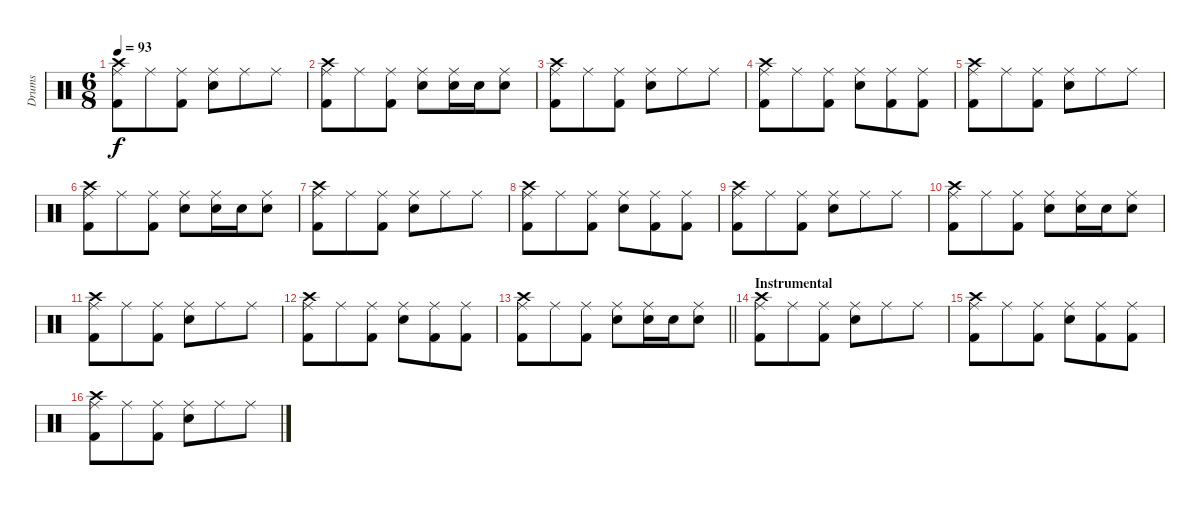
\track ("Drums" "Drums") {instrument percussion}
\staff {score}
\articulation defaults
\ts (6 8)
\tempo 93
\clef neutral
\ks c
("Crash high (hit)" "Ride (middle)" "Kick (hit) 2").8{dy f} "Ride (middle)".8 ("Ride (middle)" "Kick (hit) 2").8 ("Ride (middle)" "Snare (hit) 2").8 "Ride (middle)".8 "Ride (middle)".8 |
("Crash high (hit)" "Ride (middle)" "Kick (hit) 2").8 "Ride (middle)".8 ("Ride (middle)" "Kick (hit) 2").8 ("Ride (middle)" "Snare (hit) 2").8 ("Ride (middle)" "Snare (hit) 2").16 "Snare (hit) 2".16 ("Ride (middle)" "Snare (hit) 2").8 |
("Crash high (hit)" "Ride (middle)" "Kick (hit) 2").8 "Ride (middle)".8 ("Ride (middle)" "Kick (hit) 2").8 ("Ride (middle)" "Snare (hit) 2").8 "Ride (middle)".8 "Ride (middle)".8 |
("Crash high (hit)" "Ride (middle)" "Kick (hit) 2").8 "Ride (middle)".8 ("Ride (middle)" "Kick (hit) 2").8 ("Ride (middle)" "Snare (hit) 2").8 ("Ride (middle)" "Kick (hit) 2").8 ("Ride (middle)" "Kick (hit) 2").8 |
("Crash high (hit)" "Ride (middle)" "Kick (hit) 2").8 "Ride (middle)".8 ("Ride (middle)" "Kick (hit) 2").8 ("Ride (middle)" "Snare (hit) 2").8 "Ride (middle)".8 "Ride (middle)".8 |
("Crash high (hit)" "Ride (middle)" "Kick (hit) 2").8 "Ride (middle)".8 ("Ride (middle)" "Kick (hit) 2").8 ("Ride (middle)" "Snare (hit) 2").8 ("Ride (middle)" "Snare (hit) 2").16 "Snare (hit) 2".16 ("Ride (middle)" "Snare (hit) 2").8 |
("Crash high (hit)" "Ride (middle)" "Kick (hit) 2").8 "Ride (middle)".8 ("Ride (middle)" "Kick (hit) 2").8 ("Ride (middle)" "Snare (hit) 2").8 "Ride (middle)".8 "Ride (middle)".8 |
("Crash high (hit)" "Ride (middle)" "Kick (hit) 2").8 "Ride (middle)".8 ("Ride (middle)" "Kick (hit) 2").8 ("Ride (middle)" "Snare (hit) 2").8 ("Ride (middle)" "Kick (hit) 2").8 ("Ride (middle)" "Kick (hit) 2").8 |
("Crash high (hit)" "Ride (middle)" "Kick (hit) 2").8 "Ride (middle)".8 ("Ride (middle)" "Kick (hit) 2").8 ("Ride (middle)" "Snare (hit) 2").8 "Ride (middle)".8 "Ride (middle)".8 |
("Crash high (hit)" "Ride (middle)" "Kick (hit) 2").8 "Ride (middle)".8 ("Ride (middle)" "Kick (hit) 2").8 ("Ride (middle)" "Snare (hit) 2").8 ("Ride (middle)" "Snare (hit) 2").16 "Snare (hit) 2".16 ("Ride (middle)" "Snare (hit) 2").8 |
("Crash high (hit)" "Ride (middle)" "Kick (hit) 2").8 "Ride (middle)".8 ("Ride (middle)" "Kick (hit) 2").8 ("Ride (middle)" "Snare (hit) 2").8 "Ride (middle)".8 "Ride (middle)".8 |
("Crash high (hit)" "Ride (middle)" "Kick (hit) 2").8 "Ride (middle)".8 ("Ride (middle)" "Kick (hit) 2").8 ("Ride (middle)" "Snare (hit) 2").8 ("Ride (middle)" "Kick (hit) 2").8 ("Ride (middle)" "Kick (hit) 2").8 |
\barLineRight lightlight
("Crash high (hit)" "Ride (middle)" "Kick (hit) 2").8 "Ride (middle)".8 ("Ride (middle)" "Kick (hit) 2").8 ("Ride (middle)" "Snare (hit) 2").8 ("Ride (middle)" "Snare (hit) 2").16 "Snare (hit) 2".16 ("Ride (middle)" "Snare (hit) 2").8 |
\section ("" "Instrumental")
("Crash high (hit)" "Ride (middle)" "Kick (hit) 2").8 "Ride (middle)".8 ("Ride (middle)" "Kick (hit) 2").8 ("Ride (middle)" "Snare (hit) 2").8 "Ride (middle)".8 "Ride (middle)".8 |
("Crash high (hit)" "Ride (middle)" "Kick (hit) 2").8 "Ride (middle)".8 ("Ride (middle)" "Kick (hit) 2").8 ("Ride (middle)" "Snare (hit) 2").8 ("Ride (middle)" "Kick (hit) 2").8 ("Ride (middle)" "Kick (hit) 2").8 |
("Crash high (hit)" "Ride (middle)" "Kick (hit) 2").8 "Ride (middle)".8 ("Ride (middle)" "Kick (hit) 2").8 ("Ride (middle)" "Snare (hit) 2").8 "Ride (middle)".8 "Ride (middle)".8
